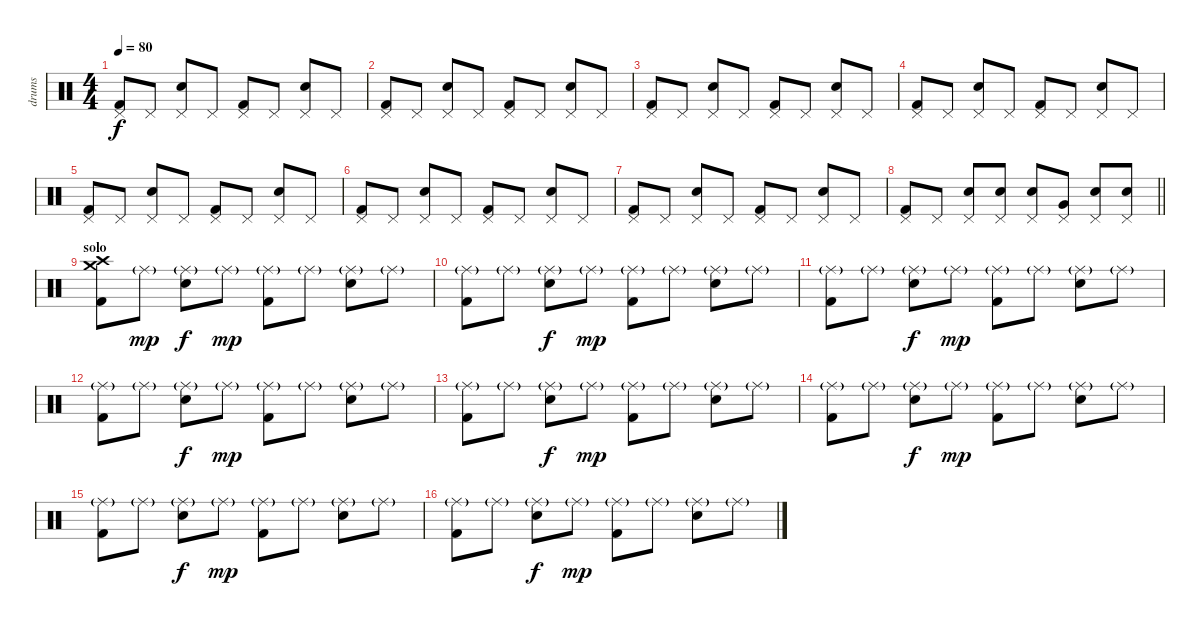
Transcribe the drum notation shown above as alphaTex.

\track ("drums" "drums") {instrument percussion}
\staff {score}
\articulation defaults
\ts (4 4)
\tempo 80
\clef neutral
\ks c
("Kick (hit) 2" "Pedal Hi-Hat (hit)").8{dy f} "Pedal Hi-Hat (hit)".8 ("Electric Snare (hit)" "Pedal Hi-Hat (hit)").8 "Pedal Hi-Hat (hit)".8 ("Kick (hit) 2" "Pedal Hi-Hat (hit)").8 "Pedal Hi-Hat (hit)".8 ("Electric Snare (hit)" "Pedal Hi-Hat (hit)").8 "Pedal Hi-Hat (hit)".8 |
("Kick (hit) 2" "Pedal Hi-Hat (hit)").8 "Pedal Hi-Hat (hit)".8 ("Electric Snare (hit)" "Pedal Hi-Hat (hit)").8 "Pedal Hi-Hat (hit)".8 ("Kick (hit) 2" "Pedal Hi-Hat (hit)").8 "Pedal Hi-Hat (hit)".8 ("Electric Snare (hit)" "Pedal Hi-Hat (hit)").8 "Pedal Hi-Hat (hit)".8 |
("Kick (hit) 2" "Pedal Hi-Hat (hit)").8 "Pedal Hi-Hat (hit)".8 ("Electric Snare (hit)" "Pedal Hi-Hat (hit)").8 "Pedal Hi-Hat (hit)".8 ("Kick (hit) 2" "Pedal Hi-Hat (hit)").8 "Pedal Hi-Hat (hit)".8 ("Electric Snare (hit)" "Pedal Hi-Hat (hit)").8 "Pedal Hi-Hat (hit)".8 |
("Kick (hit) 2" "Pedal Hi-Hat (hit)").8 "Pedal Hi-Hat (hit)".8 ("Electric Snare (hit)" "Pedal Hi-Hat (hit)").8 "Pedal Hi-Hat (hit)".8 ("Kick (hit) 2" "Pedal Hi-Hat (hit)").8 "Pedal Hi-Hat (hit)".8 ("Electric Snare (hit)" "Pedal Hi-Hat (hit)").8 "Pedal Hi-Hat (hit)".8 |
("Kick (hit) 2" "Pedal Hi-Hat (hit)").8 "Pedal Hi-Hat (hit)".8 ("Electric Snare (hit)" "Pedal Hi-Hat (hit)").8 "Pedal Hi-Hat (hit)".8 ("Kick (hit) 2" "Pedal Hi-Hat (hit)").8 "Pedal Hi-Hat (hit)".8 ("Electric Snare (hit)" "Pedal Hi-Hat (hit)").8 "Pedal Hi-Hat (hit)".8 |
("Kick (hit) 2" "Pedal Hi-Hat (hit)").8 "Pedal Hi-Hat (hit)".8 ("Electric Snare (hit)" "Pedal Hi-Hat (hit)").8 "Pedal Hi-Hat (hit)".8 ("Kick (hit) 2" "Pedal Hi-Hat (hit)").8 "Pedal Hi-Hat (hit)".8 ("Electric Snare (hit)" "Pedal Hi-Hat (hit)").8 "Pedal Hi-Hat (hit)".8 |
("Kick (hit) 2" "Pedal Hi-Hat (hit)").8 "Pedal Hi-Hat (hit)".8 ("Electric Snare (hit)" "Pedal Hi-Hat (hit)").8 "Pedal Hi-Hat (hit)".8 ("Kick (hit) 2" "Pedal Hi-Hat (hit)").8 "Pedal Hi-Hat (hit)".8 ("Electric Snare (hit)" "Pedal Hi-Hat (hit)").8 "Pedal Hi-Hat (hit)".8 |
\barLineRight lightlight
("Kick (hit) 2" "Pedal Hi-Hat (hit)").8 "Pedal Hi-Hat (hit)".8 ("Snare (hit) 2" "Pedal Hi-Hat (hit)").8{volume 10} ("Snare (hit) 2"{tr (38 16)} "Pedal Hi-Hat (hit)").8 ("Snare (hit) 2" "Pedal Hi-Hat (hit)").8 ("Very Low Tom (hit)" "Pedal Hi-Hat (hit)").8 ("Snare (hit) 2"{tr (38 16)} "Pedal Hi-Hat (hit)").8 ("Snare (hit) 2" "Pedal Hi-Hat (hit)").8 |
\section ("" "solo")
("Kick (hit) 2" "Crash high (hit)" "Crash medium (hit)").8 "Ride (middle)"{g}.8{dy mp} ("Snare (hit) 2" "Ride (middle)"{g}).8{dy f} "Ride (middle)"{g}.8{dy mp} ("Kick (hit) 2" "Ride (middle)"{g}).8 "Ride (middle)"{g}.8 ("Snare (hit) 2" "Ride (middle)"{g}).8 "Ride (middle)"{g}.8 |
("Kick (hit) 2" "Ride (middle)"{g}).8 "Ride (middle)"{g}.8 ("Snare (hit) 2" "Ride (middle)"{g}).8{dy f} "Ride (middle)"{g}.8{dy mp} ("Kick (hit) 2" "Ride (middle)"{g}).8 "Ride (middle)"{g}.8 ("Snare (hit) 2" "Ride (middle)"{g}).8 "Ride (middle)"{g}.8 |
("Kick (hit) 2" "Ride (middle)"{g}).8 "Ride (middle)"{g}.8 ("Snare (hit) 2" "Ride (middle)"{g}).8{dy f} "Ride (middle)"{g}.8{dy mp} ("Kick (hit) 2" "Ride (middle)"{g}).8 "Ride (middle)"{g}.8 ("Snare (hit) 2" "Ride (middle)"{g}).8 "Ride (middle)"{g}.8 |
("Kick (hit) 2" "Ride (middle)"{g}).8 "Ride (middle)"{g}.8 ("Snare (hit) 2" "Ride (middle)"{g}).8{dy f} "Ride (middle)"{g}.8{dy mp} ("Kick (hit) 2" "Ride (middle)"{g}).8 "Ride (middle)"{g}.8 ("Snare (hit) 2" "Ride (middle)"{g}).8 "Ride (middle)"{g}.8 |
("Kick (hit) 2" "Ride (middle)"{g}).8 "Ride (middle)"{g}.8 ("Snare (hit) 2" "Ride (middle)"{g}).8{dy f} "Ride (middle)"{g}.8{dy mp} ("Kick (hit) 2" "Ride (middle)"{g}).8 "Ride (middle)"{g}.8 ("Snare (hit) 2" "Ride (middle)"{g}).8 "Ride (middle)"{g}.8 |
("Kick (hit) 2" "Ride (middle)"{g}).8 "Ride (middle)"{g}.8 ("Snare (hit) 2" "Ride (middle)"{g}).8{dy f} "Ride (middle)"{g}.8{dy mp} ("Kick (hit) 2" "Ride (middle)"{g}).8 "Ride (middle)"{g}.8 ("Snare (hit) 2" "Ride (middle)"{g}).8 "Ride (middle)"{g}.8 |
("Kick (hit) 2" "Ride (middle)"{g}).8 "Ride (middle)"{g}.8 ("Snare (hit) 2" "Ride (middle)"{g}).8{dy f} "Ride (middle)"{g}.8{dy mp} ("Kick (hit) 2" "Ride (middle)"{g}).8 "Ride (middle)"{g}.8 ("Snare (hit) 2" "Ride (middle)"{g}).8 "Ride (middle)"{g}.8 |
("Kick (hit) 2" "Ride (middle)"{g}).8 "Ride (middle)"{g}.8 ("Snare (hit) 2" "Ride (middle)"{g}).8{dy f} "Ride (middle)"{g}.8{dy mp} ("Kick (hit) 2" "Ride (middle)"{g}).8 "Ride (middle)"{g}.8 ("Snare (hit) 2" "Ride (middle)"{g}).8 "Ride (middle)"{g}.8
